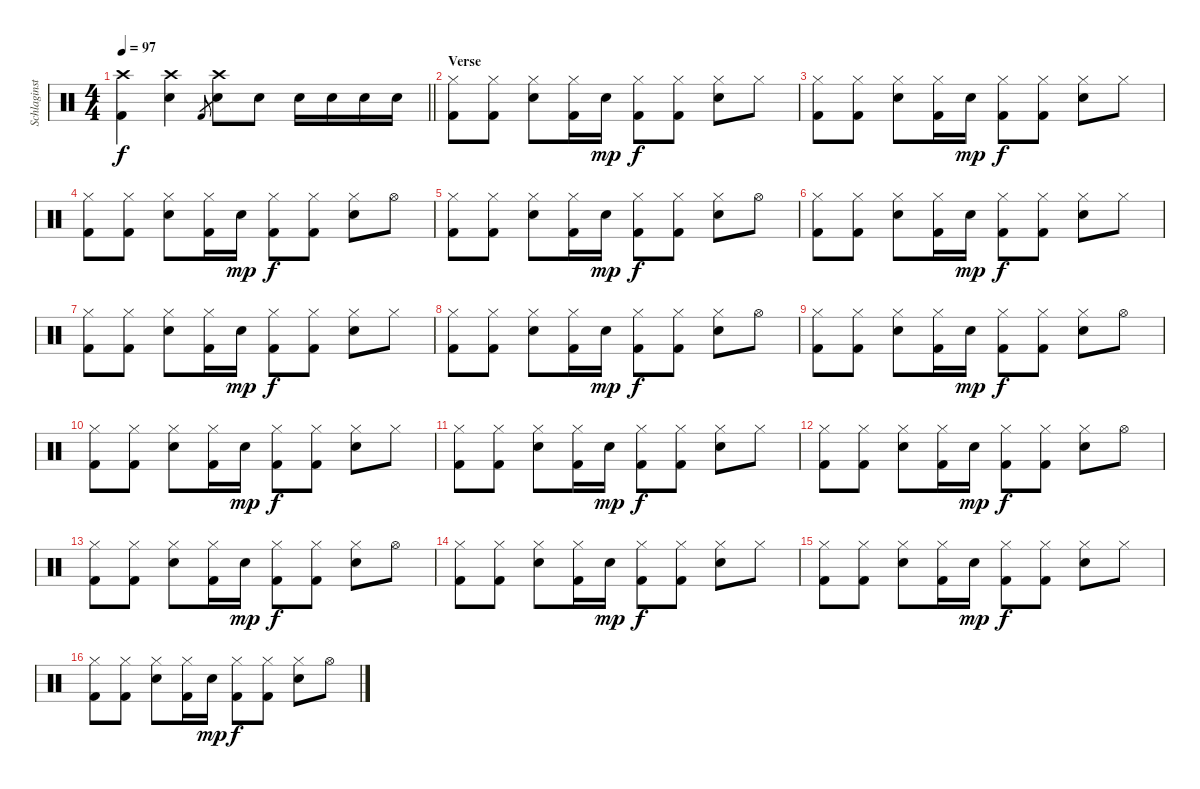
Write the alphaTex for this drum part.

\track ("Schlaginstrumente - Auswahl" "Schlaginst") {instrument percussion}
\staff {score}
\articulation defaults
\ts (4 4)
\tempo 97
\clef neutral
\barLineRight lightlight
\ks c
("Crash high (hit)" "Kick (hit) 2").4{dy f} ("Crash high (hit)" "Electric Snare (hit)").4 "Kick (hit) 2".8{gr} ("Crash high (hit)" "Electric Snare (hit)").8 "Electric Snare (hit)".8 "Electric Snare (hit)".16 "Electric Snare (hit)".16 "Electric Snare (hit)".16 "Electric Snare (hit)".16 |
\section ("" "Verse")
("Hi-Hat (closed)" "Kick (hit) 2").8 ("Hi-Hat (closed)" "Kick (hit) 2").8 ("Hi-Hat (closed)" "Electric Snare (hit)").8 ("Hi-Hat (closed)" "Kick (hit) 2").16 "Electric Snare (hit)".16{dy mp} ("Hi-Hat (closed)" "Kick (hit) 2").8{dy f} ("Hi-Hat (closed)" "Kick (hit) 2").8 ("Hi-Hat (closed)" "Electric Snare (hit)").8 "Hi-Hat (closed)".8 |
("Hi-Hat (closed)" "Kick (hit) 2").8 ("Hi-Hat (closed)" "Kick (hit) 2").8 ("Hi-Hat (closed)" "Electric Snare (hit)").8 ("Hi-Hat (closed)" "Kick (hit) 2").16 "Electric Snare (hit)".16{dy mp} ("Hi-Hat (closed)" "Kick (hit) 2").8{dy f} ("Hi-Hat (closed)" "Kick (hit) 2").8 ("Hi-Hat (closed)" "Electric Snare (hit)").8 "Hi-Hat (closed)".8 |
("Hi-Hat (closed)" "Kick (hit) 2").8 ("Hi-Hat (closed)" "Kick (hit) 2").8 ("Hi-Hat (closed)" "Electric Snare (hit)").8 ("Hi-Hat (closed)" "Kick (hit) 2").16 "Electric Snare (hit)".16{dy mp} ("Hi-Hat (closed)" "Kick (hit) 2").8{dy f} ("Hi-Hat (closed)" "Kick (hit) 2").8 ("Hi-Hat (closed)" "Electric Snare (hit)").8 "Hi-Hat (open)".8 |
("Hi-Hat (closed)" "Kick (hit) 2").8 ("Hi-Hat (closed)" "Kick (hit) 2").8 ("Hi-Hat (closed)" "Electric Snare (hit)").8 ("Hi-Hat (closed)" "Kick (hit) 2").16 "Electric Snare (hit)".16{dy mp} ("Hi-Hat (closed)" "Kick (hit) 2").8{dy f} ("Hi-Hat (closed)" "Kick (hit) 2").8 ("Hi-Hat (closed)" "Electric Snare (hit)").8 "Hi-Hat (open)".8 |
("Hi-Hat (closed)" "Kick (hit) 2").8 ("Hi-Hat (closed)" "Kick (hit) 2").8 ("Hi-Hat (closed)" "Electric Snare (hit)").8 ("Hi-Hat (closed)" "Kick (hit) 2").16 "Electric Snare (hit)".16{dy mp} ("Hi-Hat (closed)" "Kick (hit) 2").8{dy f} ("Hi-Hat (closed)" "Kick (hit) 2").8 ("Hi-Hat (closed)" "Electric Snare (hit)").8 "Hi-Hat (closed)".8 |
("Hi-Hat (closed)" "Kick (hit) 2").8 ("Hi-Hat (closed)" "Kick (hit) 2").8 ("Hi-Hat (closed)" "Electric Snare (hit)").8 ("Hi-Hat (closed)" "Kick (hit) 2").16 "Electric Snare (hit)".16{dy mp} ("Hi-Hat (closed)" "Kick (hit) 2").8{dy f} ("Hi-Hat (closed)" "Kick (hit) 2").8 ("Hi-Hat (closed)" "Electric Snare (hit)").8 "Hi-Hat (closed)".8 |
("Hi-Hat (closed)" "Kick (hit) 2").8 ("Hi-Hat (closed)" "Kick (hit) 2").8 ("Hi-Hat (closed)" "Electric Snare (hit)").8 ("Hi-Hat (closed)" "Kick (hit) 2").16 "Electric Snare (hit)".16{dy mp} ("Hi-Hat (closed)" "Kick (hit) 2").8{dy f} ("Hi-Hat (closed)" "Kick (hit) 2").8 ("Hi-Hat (closed)" "Electric Snare (hit)").8 "Hi-Hat (open)".8 |
("Hi-Hat (closed)" "Kick (hit) 2").8 ("Hi-Hat (closed)" "Kick (hit) 2").8 ("Hi-Hat (closed)" "Electric Snare (hit)").8 ("Hi-Hat (closed)" "Kick (hit) 2").16 "Electric Snare (hit)".16{dy mp} ("Hi-Hat (closed)" "Kick (hit) 2").8{dy f} ("Hi-Hat (closed)" "Kick (hit) 2").8 ("Hi-Hat (closed)" "Electric Snare (hit)").8 "Hi-Hat (open)".8 |
("Hi-Hat (closed)" "Kick (hit) 2").8 ("Hi-Hat (closed)" "Kick (hit) 2").8 ("Hi-Hat (closed)" "Electric Snare (hit)").8 ("Hi-Hat (closed)" "Kick (hit) 2").16 "Electric Snare (hit)".16{dy mp} ("Hi-Hat (closed)" "Kick (hit) 2").8{dy f} ("Hi-Hat (closed)" "Kick (hit) 2").8 ("Hi-Hat (closed)" "Electric Snare (hit)").8 "Hi-Hat (closed)".8 |
("Hi-Hat (closed)" "Kick (hit) 2").8 ("Hi-Hat (closed)" "Kick (hit) 2").8 ("Hi-Hat (closed)" "Electric Snare (hit)").8 ("Hi-Hat (closed)" "Kick (hit) 2").16 "Electric Snare (hit)".16{dy mp} ("Hi-Hat (closed)" "Kick (hit) 2").8{dy f} ("Hi-Hat (closed)" "Kick (hit) 2").8 ("Hi-Hat (closed)" "Electric Snare (hit)").8 "Hi-Hat (closed)".8 |
("Hi-Hat (closed)" "Kick (hit) 2").8 ("Hi-Hat (closed)" "Kick (hit) 2").8 ("Hi-Hat (closed)" "Electric Snare (hit)").8 ("Hi-Hat (closed)" "Kick (hit) 2").16 "Electric Snare (hit)".16{dy mp} ("Hi-Hat (closed)" "Kick (hit) 2").8{dy f} ("Hi-Hat (closed)" "Kick (hit) 2").8 ("Hi-Hat (closed)" "Electric Snare (hit)").8 "Hi-Hat (open)".8 |
("Hi-Hat (closed)" "Kick (hit) 2").8 ("Hi-Hat (closed)" "Kick (hit) 2").8 ("Hi-Hat (closed)" "Electric Snare (hit)").8 ("Hi-Hat (closed)" "Kick (hit) 2").16 "Electric Snare (hit)".16{dy mp} ("Hi-Hat (closed)" "Kick (hit) 2").8{dy f} ("Hi-Hat (closed)" "Kick (hit) 2").8 ("Hi-Hat (closed)" "Electric Snare (hit)").8 "Hi-Hat (open)".8 |
("Hi-Hat (closed)" "Kick (hit) 2").8 ("Hi-Hat (closed)" "Kick (hit) 2").8 ("Hi-Hat (closed)" "Electric Snare (hit)").8 ("Hi-Hat (closed)" "Kick (hit) 2").16 "Electric Snare (hit)".16{dy mp} ("Hi-Hat (closed)" "Kick (hit) 2").8{dy f} ("Hi-Hat (closed)" "Kick (hit) 2").8 ("Hi-Hat (closed)" "Electric Snare (hit)").8 "Hi-Hat (closed)".8 |
("Hi-Hat (closed)" "Kick (hit) 2").8 ("Hi-Hat (closed)" "Kick (hit) 2").8 ("Hi-Hat (closed)" "Electric Snare (hit)").8 ("Hi-Hat (closed)" "Kick (hit) 2").16 "Electric Snare (hit)".16{dy mp} ("Hi-Hat (closed)" "Kick (hit) 2").8{dy f} ("Hi-Hat (closed)" "Kick (hit) 2").8 ("Hi-Hat (closed)" "Electric Snare (hit)").8 "Hi-Hat (closed)".8 |
("Hi-Hat (closed)" "Kick (hit) 2").8 ("Hi-Hat (closed)" "Kick (hit) 2").8 ("Hi-Hat (closed)" "Electric Snare (hit)").8 ("Hi-Hat (closed)" "Kick (hit) 2").16 "Electric Snare (hit)".16{dy mp} ("Hi-Hat (closed)" "Kick (hit) 2").8{dy f} ("Hi-Hat (closed)" "Kick (hit) 2").8 ("Hi-Hat (closed)" "Electric Snare (hit)").8 "Hi-Hat (open)".8
